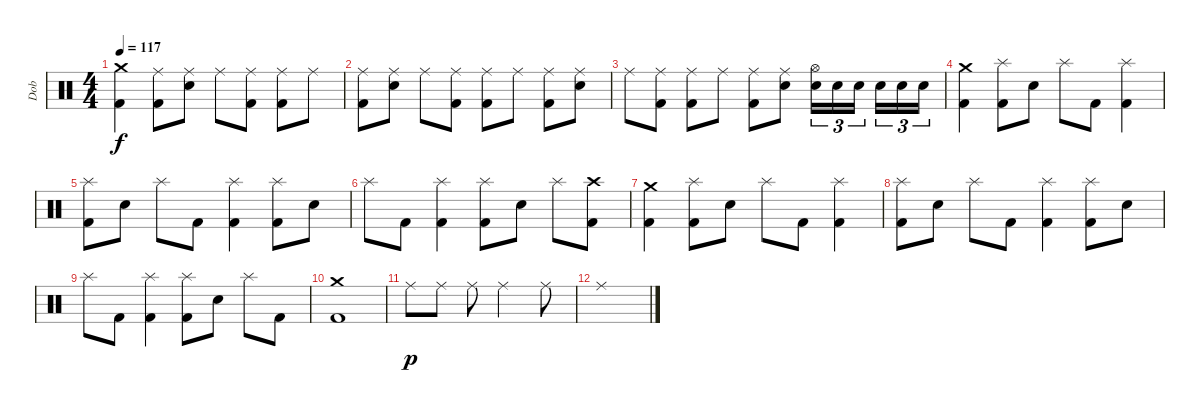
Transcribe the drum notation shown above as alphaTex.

\track ("Dob" "Dob") {instrument percussion}
\staff
\articulation defaults
\ts (4 4)
\tempo 117
\clef neutral
\ks c
("Crash medium (hit)" "Kick (hit) 2").4{dy f} ("Ride (middle)" "Kick (hit) 2").8 ("Ride (middle)" "Snare (hit) 2").8 "Ride (middle)".8 ("Ride (middle)" "Kick (hit) 2").8 ("Ride (middle)" "Kick (hit) 2").8 "Ride (middle)".8 |
("Ride (middle)" "Kick (hit) 2").8 ("Ride (middle)" "Snare (hit) 2").8 "Ride (middle)".8 ("Ride (middle)" "Kick (hit) 2").8 ("Ride (middle)" "Kick (hit) 2").8 "Ride (middle)".8 ("Ride (middle)" "Kick (hit) 2").8 ("Ride (middle)" "Snare (hit) 2").8 |
"Ride (middle)".8 ("Ride (middle)" "Kick (hit) 2").8 ("Ride (middle)" "Kick (hit) 2").8 "Ride (middle)".8 ("Ride (middle)" "Kick (hit) 2").8 ("Ride (middle)" "Snare (hit) 2").8 ("Hi-Hat (open)" "Snare (hit) 2").16{tu (3 2)} "Snare (hit) 2".16{tu (3 2)} "Snare (hit) 2".16{tu (3 2) beam splitsecondary} "Snare (hit) 2".16{tu (3 2)} "Snare (hit) 2".16{tu (3 2)} "Snare (hit) 2".16{tu (3 2)} |
("Crash medium (hit)" "Kick (hit) 2").4 ("Splash (hit)" "Kick (hit) 2").8 "Snare (hit) 2".8 "Splash (hit)".8 "Kick (hit) 2".8 ("Splash (hit)" "Kick (hit) 2").4 |
("Splash (hit)" "Kick (hit) 2").8 "Snare (hit) 2".8 "Splash (hit)".8 "Kick (hit) 2".8 ("Splash (hit)" "Kick (hit) 2").4 ("Splash (hit)" "Kick (hit) 2").8 "Snare (hit) 2".8 |
"Splash (hit)".8 "Kick (hit) 2".8 ("Splash (hit)" "Kick (hit) 2").4 ("Splash (hit)" "Kick (hit) 2").8 "Snare (hit) 2".8 "Splash (hit)".8 ("Crash high (hit)" "Kick (hit) 2").8 |
("Crash medium (hit)" "Kick (hit) 2").4 ("Splash (hit)" "Kick (hit) 2").8 "Snare (hit) 2".8 "Splash (hit)".8 "Kick (hit) 2".8 ("Splash (hit)" "Kick (hit) 2").4 |
("Splash (hit)" "Kick (hit) 2").8 "Snare (hit) 2".8 "Splash (hit)".8 "Kick (hit) 2".8 ("Splash (hit)" "Kick (hit) 2").4 ("Splash (hit)" "Kick (hit) 2").8 "Snare (hit) 2".8 |
"Splash (hit)".8 "Kick (hit) 2".8 ("Splash (hit)" "Kick (hit) 2").4 ("Splash (hit)" "Kick (hit) 2").8 "Snare (hit) 2".8 "Splash (hit)".8 "Kick (hit) 2".8 |
("Crash medium (hit)" "Kick (hit) 2").1 |
"Ride (middle)".8{dy p} "Ride (middle)".8 "Ride (middle)".8 "Ride (middle)".2 "Ride (middle)".8 |
"Ride (middle)".1
